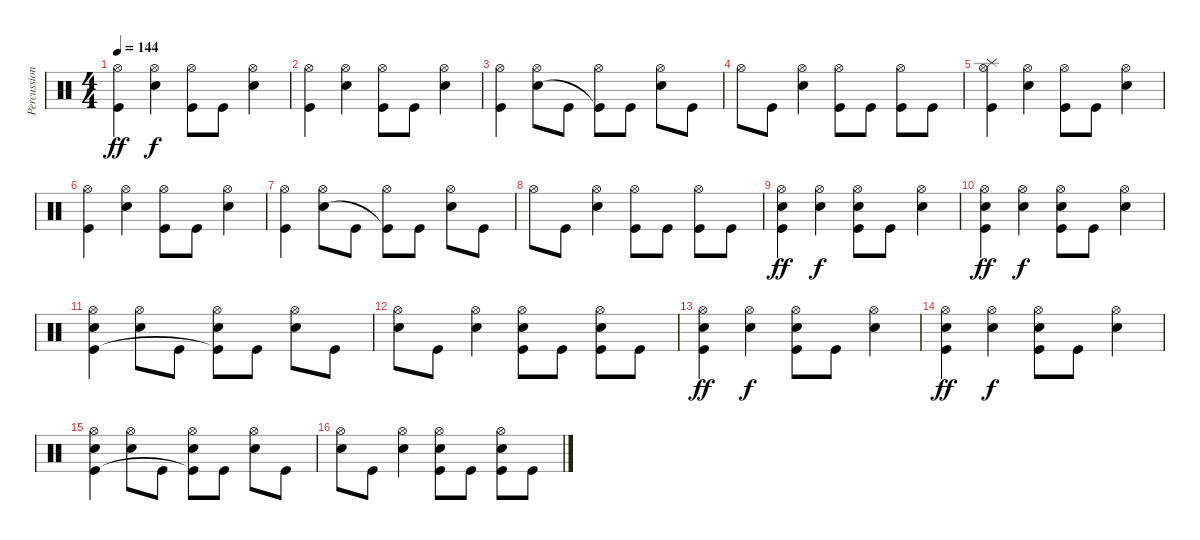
\track ("Percussion" "Percussion") {instrument percussion}
\staff {score}
\articulation defaults
\ts (4 4)
\tempo 144
\clef neutral
\ks c
("Hi-Hat (open)" "Kick (hit)").4{dy ff} ("Hi-Hat (open)" "Snare (hit) 2").4{dy f} ("Hi-Hat (open)" "Kick (hit)").8 "Kick (hit)".8 ("Hi-Hat (open)" "Snare (hit) 2").4 |
("Hi-Hat (open)" "Kick (hit)").4 ("Hi-Hat (open)" "Snare (hit) 2").4 ("Hi-Hat (open)" "Kick (hit)").8 "Kick (hit)".8 ("Hi-Hat (open)" "Snare (hit) 2").4 |
("Hi-Hat (open)" "Kick (hit)").4 ("Hi-Hat (open)" "Snare (hit) 2").8 "Kick (hit)".8 ("Hi-Hat (open)" "Kick (hit)"{t}).8 "Kick (hit)".8 ("Hi-Hat (open)" "Snare (hit) 2").8 "Kick (hit)".8 |
"Hi-Hat (open)".8 "Kick (hit)".8 ("Hi-Hat (open)" "Snare (hit) 2").4 ("Hi-Hat (open)" "Kick (hit)").8 "Kick (hit)".8 ("Hi-Hat (open)" "Kick (hit)").8 "Kick (hit)".8 |
("Hi-Hat (open)" "Splash (hit)" "Kick (hit)").4 ("Hi-Hat (open)" "Snare (hit) 2").4 ("Hi-Hat (open)" "Kick (hit)").8 "Kick (hit)".8 ("Hi-Hat (open)" "Snare (hit) 2").4 |
("Hi-Hat (open)" "Kick (hit)").4 ("Hi-Hat (open)" "Snare (hit) 2").4 ("Hi-Hat (open)" "Kick (hit)").8 "Kick (hit)".8 ("Hi-Hat (open)" "Snare (hit) 2").4 |
("Hi-Hat (open)" "Kick (hit)").4 ("Hi-Hat (open)" "Snare (hit) 2").8 "Kick (hit)".8 ("Hi-Hat (open)" "Kick (hit)"{t}).8 "Kick (hit)".8 ("Hi-Hat (open)" "Snare (hit) 2").8 "Kick (hit)".8 |
"Hi-Hat (open)".8 "Kick (hit)".8 ("Hi-Hat (open)" "Snare (hit) 2").4 ("Hi-Hat (open)" "Kick (hit)").8 "Kick (hit)".8 ("Hi-Hat (open)" "Kick (hit)").8 "Kick (hit)".8 |
("Hi-Hat (open)" "Snare (hit) 2" "Kick (hit)").4{dy ff} ("Hi-Hat (open)" "Snare (hit) 2").4{dy f} ("Hi-Hat (open)" "Snare (hit) 2" "Kick (hit)").8 "Kick (hit)".8 ("Hi-Hat (open)" "Snare (hit) 2").4 |
("Hi-Hat (open)" "Snare (hit) 2" "Kick (hit)").4{dy ff} ("Hi-Hat (open)" "Snare (hit) 2").4{dy f} ("Hi-Hat (open)" "Snare (hit) 2" "Kick (hit)").8 "Kick (hit)".8 ("Hi-Hat (open)" "Snare (hit) 2").4 |
("Hi-Hat (open)" "Snare (hit) 2" "Kick (hit)").4 ("Hi-Hat (open)" "Snare (hit) 2").8 "Kick (hit)".8 ("Hi-Hat (open)" "Snare (hit) 2" "Kick (hit)"{t}).8 "Kick (hit)".8 ("Hi-Hat (open)" "Snare (hit) 2").8 "Kick (hit)".8 |
("Hi-Hat (open)" "Snare (hit) 2").8 "Kick (hit)".8 ("Hi-Hat (open)" "Snare (hit) 2").4 ("Hi-Hat (open)" "Snare (hit) 2" "Kick (hit)").8 "Kick (hit)".8 ("Hi-Hat (open)" "Snare (hit) 2" "Kick (hit)").8 "Kick (hit)".8 |
("Hi-Hat (open)" "Snare (hit) 2" "Kick (hit)").4{dy ff} ("Hi-Hat (open)" "Snare (hit) 2").4{dy f} ("Hi-Hat (open)" "Snare (hit) 2" "Kick (hit)").8 "Kick (hit)".8 ("Hi-Hat (open)" "Snare (hit) 2").4 |
("Hi-Hat (open)" "Snare (hit) 2" "Kick (hit)").4{dy ff} ("Hi-Hat (open)" "Snare (hit) 2").4{dy f} ("Hi-Hat (open)" "Snare (hit) 2" "Kick (hit)").8 "Kick (hit)".8 ("Hi-Hat (open)" "Snare (hit) 2").4 |
("Hi-Hat (open)" "Snare (hit) 2" "Kick (hit)").4 ("Hi-Hat (open)" "Snare (hit) 2").8 "Kick (hit)".8 ("Hi-Hat (open)" "Snare (hit) 2" "Kick (hit)"{t}).8 "Kick (hit)".8 ("Hi-Hat (open)" "Snare (hit) 2").8 "Kick (hit)".8 |
("Hi-Hat (open)" "Snare (hit) 2").8 "Kick (hit)".8 ("Hi-Hat (open)" "Snare (hit) 2").4 ("Hi-Hat (open)" "Snare (hit) 2" "Kick (hit)").8 "Kick (hit)".8 ("Hi-Hat (open)" "Snare (hit) 2" "Kick (hit)").8 "Kick (hit)".8
